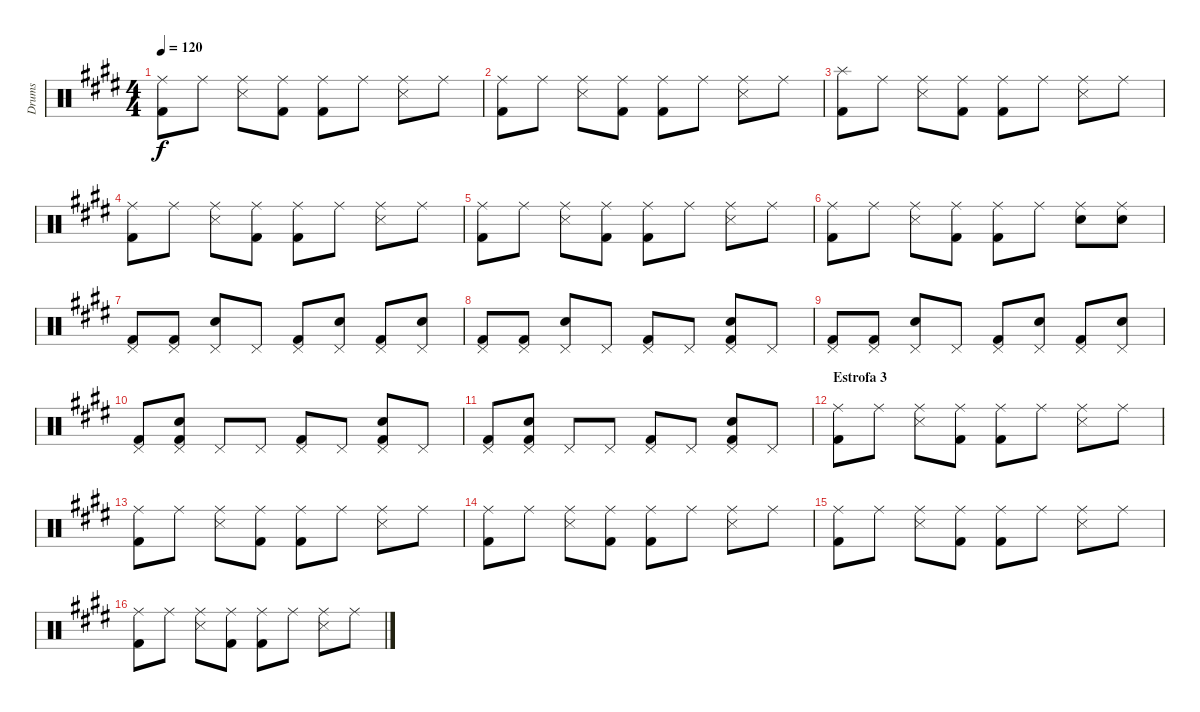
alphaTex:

\track ("Drums" "Drums") {instrument percussion}
\staff {score}
\articulation defaults
\ts (4 4)
\tempo 120
\clef neutral
\ks e
("Ride (middle)" "Kick (hit) 2").8{dy f} "Ride (middle)".8 ("Ride (middle)" "Snare (side stick) 3").8 ("Ride (middle)" "Kick (hit) 2").8 ("Ride (middle)" "Kick (hit) 2").8 "Ride (middle)".8 ("Ride (middle)" "Snare (side stick) 3").8 "Ride (middle)".8 |
("Ride (middle)" "Kick (hit) 2").8 "Ride (middle)".8 ("Ride (middle)" "Snare (side stick) 3").8 ("Ride (middle)" "Kick (hit) 2").8 ("Ride (middle)" "Kick (hit) 2").8 "Ride (middle)".8 ("Ride (middle)" "Snare (side stick) 3").8 "Ride (middle)".8 |
("Splash (hit)" "Kick (hit) 2").8 "Ride (middle)".8 ("Ride (middle)" "Snare (side stick) 3").8 ("Ride (middle)" "Kick (hit) 2").8 ("Ride (middle)" "Kick (hit) 2").8 "Ride (middle)".8 ("Ride (middle)" "Snare (side stick) 3").8 "Ride (middle)".8 |
("Ride (middle)" "Kick (hit) 2").8 "Ride (middle)".8 ("Ride (middle)" "Snare (side stick) 3").8 ("Ride (middle)" "Kick (hit) 2").8 ("Ride (middle)" "Kick (hit) 2").8 "Ride (middle)".8 ("Ride (middle)" "Snare (side stick) 3").8 "Ride (middle)".8 |
("Ride (middle)" "Kick (hit) 2").8 "Ride (middle)".8 ("Ride (middle)" "Snare (side stick) 3").8 ("Ride (middle)" "Kick (hit) 2").8 ("Ride (middle)" "Kick (hit) 2").8 "Ride (middle)".8 ("Ride (middle)" "Snare (side stick) 3").8 "Ride (middle)".8 |
("Ride (middle)" "Kick (hit) 2").8 "Ride (middle)".8 ("Ride (middle)" "Snare (side stick) 3").8 ("Ride (middle)" "Kick (hit) 2").8 ("Ride (middle)" "Kick (hit) 2").8 "Ride (middle)".8 ("Ride (middle)" "Snare (hit) 2").8 ("Ride (middle)" "Snare (hit) 2").8 |
("Pedal Hi-Hat (hit)" "Kick (hit) 2").8 ("Pedal Hi-Hat (hit)" "Kick (hit) 2").8 ("Pedal Hi-Hat (hit)" "Snare (hit) 2").8 "Pedal Hi-Hat (hit)".8 ("Pedal Hi-Hat (hit)" "Kick (hit) 2").8 ("Pedal Hi-Hat (hit)" "Snare (hit) 2").8 ("Pedal Hi-Hat (hit)" "Kick (hit) 2").8 ("Pedal Hi-Hat (hit)" "Snare (hit) 2").8 |
("Pedal Hi-Hat (hit)" "Kick (hit) 2").8 ("Pedal Hi-Hat (hit)" "Kick (hit) 2").8 ("Pedal Hi-Hat (hit)" "Snare (hit) 2").8 "Pedal Hi-Hat (hit)".8 ("Pedal Hi-Hat (hit)" "Kick (hit) 2").8 "Pedal Hi-Hat (hit)".8 ("Pedal Hi-Hat (hit)" "Snare (hit) 2" "Kick (hit) 2").8 "Pedal Hi-Hat (hit)".8 |
("Pedal Hi-Hat (hit)" "Kick (hit) 2").8 ("Pedal Hi-Hat (hit)" "Kick (hit) 2").8 ("Pedal Hi-Hat (hit)" "Snare (hit) 2").8 "Pedal Hi-Hat (hit)".8 ("Pedal Hi-Hat (hit)" "Kick (hit) 2").8 ("Pedal Hi-Hat (hit)" "Snare (hit) 2").8 ("Pedal Hi-Hat (hit)" "Kick (hit) 2").8 ("Pedal Hi-Hat (hit)" "Snare (hit) 2").8 |
("Pedal Hi-Hat (hit)" "Kick (hit) 2").8 ("Pedal Hi-Hat (hit)" "Snare (hit) 2" "Kick (hit) 2").8 "Pedal Hi-Hat (hit)".8 "Pedal Hi-Hat (hit)".8 ("Pedal Hi-Hat (hit)" "Kick (hit) 2").8 "Pedal Hi-Hat (hit)".8 ("Pedal Hi-Hat (hit)" "Snare (hit) 2" "Kick (hit) 2").8 "Pedal Hi-Hat (hit)".8 |
("Pedal Hi-Hat (hit)" "Kick (hit) 2").8 ("Pedal Hi-Hat (hit)" "Snare (hit) 2" "Kick (hit) 2").8 "Pedal Hi-Hat (hit)".8 "Pedal Hi-Hat (hit)".8 ("Pedal Hi-Hat (hit)" "Kick (hit) 2").8 "Pedal Hi-Hat (hit)".8 ("Pedal Hi-Hat (hit)" "Snare (hit) 2" "Kick (hit) 2").8 "Pedal Hi-Hat (hit)".8 |
\section ("" "Estrofa 3")
("Ride (middle)" "Kick (hit) 2").8 "Ride (middle)".8 ("Ride (middle)" "Snare (side stick) 3").8 ("Ride (middle)" "Kick (hit) 2").8 ("Ride (middle)" "Kick (hit) 2").8 "Ride (middle)".8 ("Ride (middle)" "Snare (side stick) 3").8 "Ride (middle)".8 |
("Ride (middle)" "Kick (hit) 2").8 "Ride (middle)".8 ("Ride (middle)" "Snare (side stick) 3").8 ("Ride (middle)" "Kick (hit) 2").8 ("Ride (middle)" "Kick (hit) 2").8 "Ride (middle)".8 ("Ride (middle)" "Snare (side stick) 3").8 "Ride (middle)".8 |
("Ride (middle)" "Kick (hit) 2").8 "Ride (middle)".8 ("Ride (middle)" "Snare (side stick) 3").8 ("Ride (middle)" "Kick (hit) 2").8 ("Ride (middle)" "Kick (hit) 2").8 "Ride (middle)".8 ("Ride (middle)" "Snare (side stick) 3").8 "Ride (middle)".8 |
("Ride (middle)" "Kick (hit) 2").8 "Ride (middle)".8 ("Ride (middle)" "Snare (side stick) 3").8 ("Ride (middle)" "Kick (hit) 2").8 ("Ride (middle)" "Kick (hit) 2").8 "Ride (middle)".8 ("Ride (middle)" "Snare (side stick) 3").8 "Ride (middle)".8 |
("Ride (middle)" "Kick (hit) 2").8 "Ride (middle)".8 ("Ride (middle)" "Snare (side stick) 3").8 ("Ride (middle)" "Kick (hit) 2").8 ("Ride (middle)" "Kick (hit) 2").8 "Ride (middle)".8 ("Ride (middle)" "Snare (side stick) 3").8 "Ride (middle)".8
